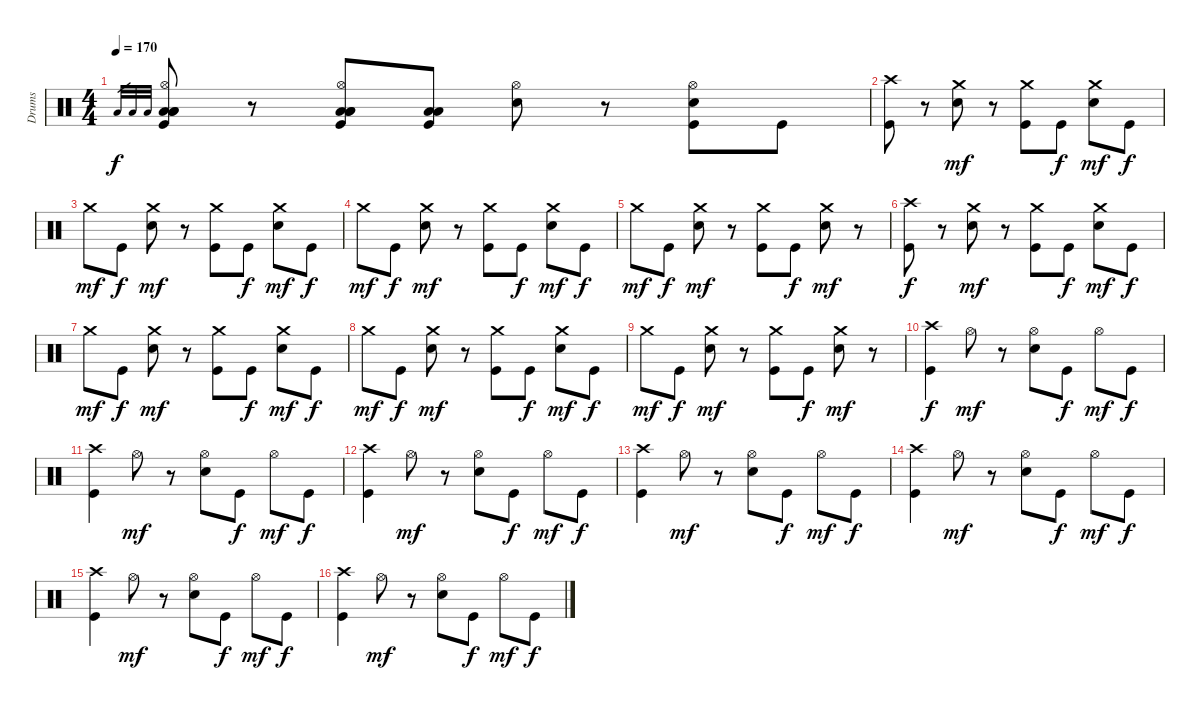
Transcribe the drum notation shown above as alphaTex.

\track ("Drums" "Drums") {instrument percussion}
\staff {score}
\articulation defaults
\ts (4 4)
\tempo 170
\clef neutral
\ks c "Low Floor Tom (hit)".32{gr dy f} "Low Floor Tom (hit)".32{gr} "Low Floor Tom (hit)".32{gr}
("Hi-Hat (open)" "Low Floor Tom (hit)" "Low Floor Tom (hit)" "Low Floor Tom (hit)" "Kick (hit)").8 r.8 ("Hi-Hat (open)" "Low Floor Tom (hit)" "Low Floor Tom (hit)" "Low Floor Tom (hit)" "Kick (hit)").8 ("Low Floor Tom (hit)" "Low Floor Tom (hit)" "Kick (hit)").8 ("Hi-Hat (open)" "Electric Snare (hit)").8 r.8 ("Hi-Hat (open)" "Electric Snare (hit)" "Kick (hit)").8 "Kick (hit)".8 |
("Kick (hit)" "Crash high (hit)").8 r.8 ("Electric Snare (hit)" "Crash medium (hit)").8{dy mf} r.8 ("Kick (hit)" "Crash medium (hit)").8 "Kick (hit)".8{dy f} ("Electric Snare (hit)" "Crash medium (hit)").8{dy mf} "Kick (hit)".8{dy f} |
"Crash medium (hit)".8{dy mf} "Kick (hit)".8{dy f} ("Electric Snare (hit)" "Crash medium (hit)").8{dy mf} r.8 ("Kick (hit)" "Crash medium (hit)").8 "Kick (hit)".8{dy f} ("Electric Snare (hit)" "Crash medium (hit)").8{dy mf} "Kick (hit)".8{dy f} |
"Crash medium (hit)".8{dy mf} "Kick (hit)".8{dy f} ("Electric Snare (hit)" "Crash medium (hit)").8{dy mf} r.8 ("Kick (hit)" "Crash medium (hit)").8 "Kick (hit)".8{dy f} ("Electric Snare (hit)" "Crash medium (hit)").8{dy mf} "Kick (hit)".8{dy f} |
"Crash medium (hit)".8{dy mf} "Kick (hit)".8{dy f} ("Electric Snare (hit)" "Crash medium (hit)").8{dy mf} r.8 ("Kick (hit)" "Crash medium (hit)").8 "Kick (hit)".8{dy f} ("Electric Snare (hit)" "Crash medium (hit)").8{dy mf} r.8 |
("Kick (hit)" "Crash high (hit)").8{dy f} r.8 ("Electric Snare (hit)" "Crash medium (hit)").8{dy mf} r.8 ("Kick (hit)" "Crash medium (hit)").8 "Kick (hit)".8{dy f} ("Electric Snare (hit)" "Crash medium (hit)").8{dy mf} "Kick (hit)".8{dy f} |
"Crash medium (hit)".8{dy mf} "Kick (hit)".8{dy f} ("Electric Snare (hit)" "Crash medium (hit)").8{dy mf} r.8 ("Kick (hit)" "Crash medium (hit)").8 "Kick (hit)".8{dy f} ("Electric Snare (hit)" "Crash medium (hit)").8{dy mf} "Kick (hit)".8{dy f} |
"Crash medium (hit)".8{dy mf} "Kick (hit)".8{dy f} ("Electric Snare (hit)" "Crash medium (hit)").8{dy mf} r.8 ("Kick (hit)" "Crash medium (hit)").8 "Kick (hit)".8{dy f} ("Electric Snare (hit)" "Crash medium (hit)").8{dy mf} "Kick (hit)".8{dy f} |
"Crash medium (hit)".8{dy mf} "Kick (hit)".8{dy f} ("Electric Snare (hit)" "Crash medium (hit)").8{dy mf} r.8 ("Kick (hit)" "Crash medium (hit)").8 "Kick (hit)".8{dy f} ("Electric Snare (hit)" "Crash medium (hit)").8{dy mf} r.8 |
("Kick (hit)" "Crash high (hit)").4{dy f} "Hi-Hat (open)".8{dy mf} r.8 ("Electric Snare (hit)" "Hi-Hat (open)").8 "Kick (hit)".8{dy f} "Hi-Hat (open)".8{dy mf} "Kick (hit)".8{dy f} |
("Kick (hit)" "Crash high (hit)").4 "Hi-Hat (open)".8{dy mf} r.8 ("Electric Snare (hit)" "Hi-Hat (open)").8 "Kick (hit)".8{dy f} "Hi-Hat (open)".8{dy mf} "Kick (hit)".8{dy f} |
("Kick (hit)" "Crash high (hit)").4 "Hi-Hat (open)".8{dy mf} r.8 ("Electric Snare (hit)" "Hi-Hat (open)").8 "Kick (hit)".8{dy f} "Hi-Hat (open)".8{dy mf} "Kick (hit)".8{dy f} |
("Kick (hit)" "Crash high (hit)").4 "Hi-Hat (open)".8{dy mf} r.8 ("Electric Snare (hit)" "Hi-Hat (open)").8 "Kick (hit)".8{dy f} "Hi-Hat (open)".8{dy mf} "Kick (hit)".8{dy f} |
("Kick (hit)" "Crash high (hit)").4 "Hi-Hat (open)".8{dy mf} r.8 ("Electric Snare (hit)" "Hi-Hat (open)").8 "Kick (hit)".8{dy f} "Hi-Hat (open)".8{dy mf} "Kick (hit)".8{dy f} |
("Kick (hit)" "Crash high (hit)").4 "Hi-Hat (open)".8{dy mf} r.8 ("Electric Snare (hit)" "Hi-Hat (open)").8 "Kick (hit)".8{dy f} "Hi-Hat (open)".8{dy mf} "Kick (hit)".8{dy f} |
("Kick (hit)" "Crash high (hit)").4 "Hi-Hat (open)".8{dy mf} r.8 ("Electric Snare (hit)" "Hi-Hat (open)").8 "Kick (hit)".8{dy f} "Hi-Hat (open)".8{dy mf} "Kick (hit)".8{dy f}
